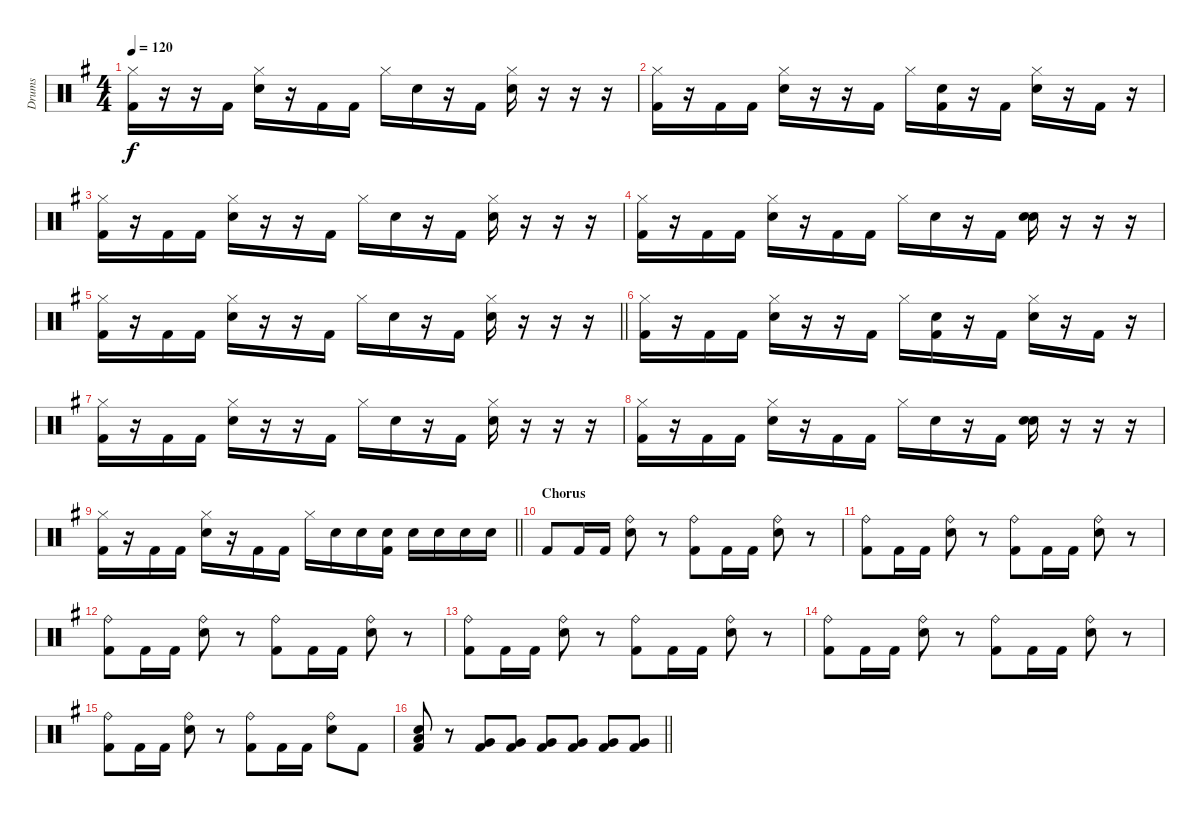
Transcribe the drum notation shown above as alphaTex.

\track ("Drums" "Drums") {instrument percussion}
\staff {score}
\articulation defaults
\ts (4 4)
\tempo 120
\clef neutral
\ks g
("Hi-Hat (closed)" "Kick (hit) 2").16{dy f} r.16 r.16 "Kick (hit) 2".16 ("Hi-Hat (closed)" "Electric Snare (hit)").16 r.16 "Kick (hit) 2".16 "Kick (hit) 2".16 "Hi-Hat (closed)".16 "Electric Snare (hit)".16 r.16 "Kick (hit) 2".16 ("Hi-Hat (closed)" "Electric Snare (hit)").16 r.16 r.16 r.16 |
("Hi-Hat (closed)" "Kick (hit) 2").16 r.16 "Kick (hit) 2".16 "Kick (hit) 2".16 ("Hi-Hat (closed)" "Electric Snare (hit)").16 r.16 r.16 "Kick (hit) 2".16 "Hi-Hat (closed)".16 ("Electric Snare (hit)" "Kick (hit) 2").16 r.16 "Kick (hit) 2".16 ("Hi-Hat (closed)" "Electric Snare (hit)").16 r.16 "Kick (hit) 2".16 r.16 |
("Hi-Hat (closed)" "Kick (hit) 2").16 r.16 "Kick (hit) 2".16 "Kick (hit) 2".16 ("Hi-Hat (closed)" "Electric Snare (hit)").16 r.16 r.16 "Kick (hit) 2".16 "Hi-Hat (closed)".16 "Electric Snare (hit)".16 r.16 "Kick (hit) 2".16 ("Hi-Hat (closed)" "Electric Snare (hit)").16 r.16 r.16 r.16 |
("Hi-Hat (closed)" "Kick (hit) 2").16 r.16 "Kick (hit) 2".16 "Kick (hit) 2".16 ("Hi-Hat (closed)" "Electric Snare (hit)").16 r.16 "Kick (hit) 2".16 "Kick (hit) 2".16 "Hi-Hat (closed)".16 "Electric Snare (hit)".16 r.16 "Kick (hit) 2".16 ("Electric Snare (hit)" "Electric Snare (hit)").16 r.16 r.16 r.16 |
\barLineRight lightlight
("Hi-Hat (closed)" "Kick (hit) 2").16 r.16 "Kick (hit) 2".16 "Kick (hit) 2".16 ("Hi-Hat (closed)" "Electric Snare (hit)").16 r.16 r.16 "Kick (hit) 2".16 "Hi-Hat (closed)".16 "Electric Snare (hit)".16 r.16 "Kick (hit) 2".16 ("Hi-Hat (closed)" "Electric Snare (hit)").16 r.16 r.16 r.16 |
("Hi-Hat (closed)" "Kick (hit) 2").16 r.16 "Kick (hit) 2".16 "Kick (hit) 2".16 ("Hi-Hat (closed)" "Electric Snare (hit)").16 r.16 r.16 "Kick (hit) 2".16 "Hi-Hat (closed)".16 ("Electric Snare (hit)" "Kick (hit) 2").16 r.16 "Kick (hit) 2".16 ("Hi-Hat (closed)" "Electric Snare (hit)").16 r.16 "Kick (hit) 2".16 r.16 |
("Hi-Hat (closed)" "Kick (hit) 2").16 r.16 "Kick (hit) 2".16 "Kick (hit) 2".16 ("Hi-Hat (closed)" "Electric Snare (hit)").16 r.16 r.16 "Kick (hit) 2".16 "Hi-Hat (closed)".16 "Electric Snare (hit)".16 r.16 "Kick (hit) 2".16 ("Hi-Hat (closed)" "Electric Snare (hit)").16 r.16 r.16 r.16 |
("Hi-Hat (closed)" "Kick (hit) 2").16 r.16 "Kick (hit) 2".16 "Kick (hit) 2".16 ("Hi-Hat (closed)" "Electric Snare (hit)").16 r.16 "Kick (hit) 2".16 "Kick (hit) 2".16 "Hi-Hat (closed)".16 "Electric Snare (hit)".16 r.16 "Kick (hit) 2".16 ("Electric Snare (hit)" "Electric Snare (hit)").16 r.16 r.16 r.16 |
\barLineRight lightlight
("Hi-Hat (closed)" "Kick (hit) 2").16 r.16 "Kick (hit) 2".16 "Kick (hit) 2".16 ("Hi-Hat (closed)" "Electric Snare (hit)").16 r.16 "Kick (hit) 2".16 "Kick (hit) 2".16 "Hi-Hat (closed)".16 "Electric Snare (hit)".16 "Electric Snare (hit)".16 ("Electric Snare (hit)" "Kick (hit) 2").16 "Electric Snare (hit)".16 "Electric Snare (hit)".16 "Electric Snare (hit)".16 "Electric Snare (hit)".16 |
\section ("" "Chorus")
"Kick (hit) 2".8 "Kick (hit) 2".16 "Kick (hit) 2".16 ("Ride (bell)" "Electric Snare (hit)").8 r.8 ("Ride (bell)" "Kick (hit) 2").8 "Kick (hit) 2".16 "Kick (hit) 2".16 ("Ride (bell)" "Electric Snare (hit)").8 r.8 |
("Ride (bell)" "Kick (hit) 2").8 "Kick (hit) 2".16 "Kick (hit) 2".16 ("Ride (bell)" "Electric Snare (hit)").8 r.8 ("Ride (bell)" "Kick (hit) 2").8 "Kick (hit) 2".16 "Kick (hit) 2".16 ("Ride (bell)" "Electric Snare (hit)").8 r.8 |
("Ride (bell)" "Kick (hit) 2").8 "Kick (hit) 2".16 "Kick (hit) 2".16 ("Ride (bell)" "Electric Snare (hit)").8 r.8 ("Ride (bell)" "Kick (hit) 2").8 "Kick (hit) 2".16 "Kick (hit) 2".16 ("Ride (bell)" "Electric Snare (hit)").8 r.8 |
("Ride (bell)" "Kick (hit) 2").8 "Kick (hit) 2".16 "Kick (hit) 2".16 ("Ride (bell)" "Electric Snare (hit)").8 r.8 ("Ride (bell)" "Kick (hit) 2").8 "Kick (hit) 2".16 "Kick (hit) 2".16 ("Ride (bell)" "Electric Snare (hit)").8 r.8 |
("Ride (bell)" "Kick (hit) 2").8 "Kick (hit) 2".16 "Kick (hit) 2".16 ("Ride (bell)" "Electric Snare (hit)").8 r.8 ("Ride (bell)" "Kick (hit) 2").8 "Kick (hit) 2".16 "Kick (hit) 2".16 ("Ride (bell)" "Electric Snare (hit)").8 r.8 |
("Ride (bell)" "Kick (hit) 2").8 "Kick (hit) 2".16 "Kick (hit) 2".16 ("Ride (bell)" "Electric Snare (hit)").8 r.8 ("Ride (bell)" "Kick (hit) 2").8 "Kick (hit) 2".16 "Kick (hit) 2".16 ("Ride (bell)" "Electric Snare (hit)").8 "Kick (hit) 2".8 |
\barLineRight lightlight
("Electric Snare (hit)" "Low Tom (hit)" "Kick (hit) 2").8 r.8 ("Very Low Tom (hit)" "Kick (hit) 2").8 ("Very Low Tom (hit)" "Kick (hit) 2").8 ("Very Low Tom (hit)" "Kick (hit) 2").8 ("Very Low Tom (hit)" "Kick (hit) 2").8 ("Very Low Tom (hit)" "Kick (hit) 2").8 ("Very Low Tom (hit)" "Kick (hit) 2").8
